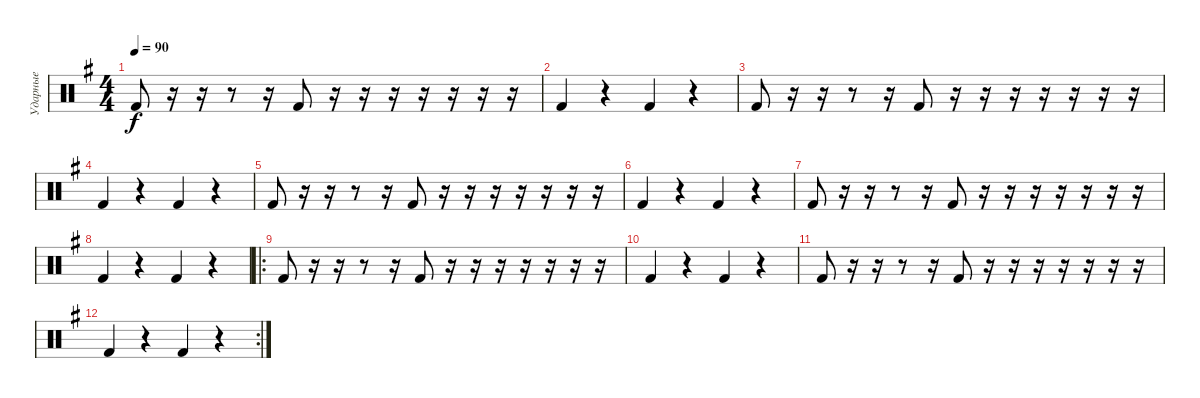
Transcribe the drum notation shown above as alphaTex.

\track ("Ударные" "Ударные") {instrument percussion}
\staff {score}
\articulation defaults
\ts (4 4)
\tempo 90
\clef neutral
\ks g "Kick (hit) 2".8{dy f}
r.16 r.16 r.8 r.16 "Kick (hit) 2".8 r.16 r.16 r.16 r.16 r.16 r.16 r.16 |
"Kick (hit) 2".4 r.4 "Kick (hit) 2".4 r.4 |
"Kick (hit) 2".8 r.16 r.16 r.8 r.16 "Kick (hit) 2".8 r.16 r.16 r.16 r.16 r.16 r.16 r.16 |
"Kick (hit) 2".4 r.4 "Kick (hit) 2".4 r.4 |
"Kick (hit) 2".8 r.16 r.16 r.8 r.16 "Kick (hit) 2".8 r.16 r.16 r.16 r.16 r.16 r.16 r.16 |
"Kick (hit) 2".4 r.4 "Kick (hit) 2".4 r.4 |
"Kick (hit) 2".8 r.16 r.16 r.8 r.16 "Kick (hit) 2".8 r.16 r.16 r.16 r.16 r.16 r.16 r.16 |
"Kick (hit) 2".4 r.4 "Kick (hit) 2".4 r.4 |
\ro "Kick (hit) 2".8
r.16 r.16 r.8 r.16 "Kick (hit) 2".8 r.16 r.16 r.16 r.16 r.16 r.16 r.16 |
"Kick (hit) 2".4 r.4 "Kick (hit) 2".4 r.4 |
"Kick (hit) 2".8 r.16 r.16 r.8 r.16 "Kick (hit) 2".8 r.16 r.16 r.16 r.16 r.16 r.16 r.16 |
\rc 2 "Kick (hit) 2".4
r.4 "Kick (hit) 2".4 r.4
